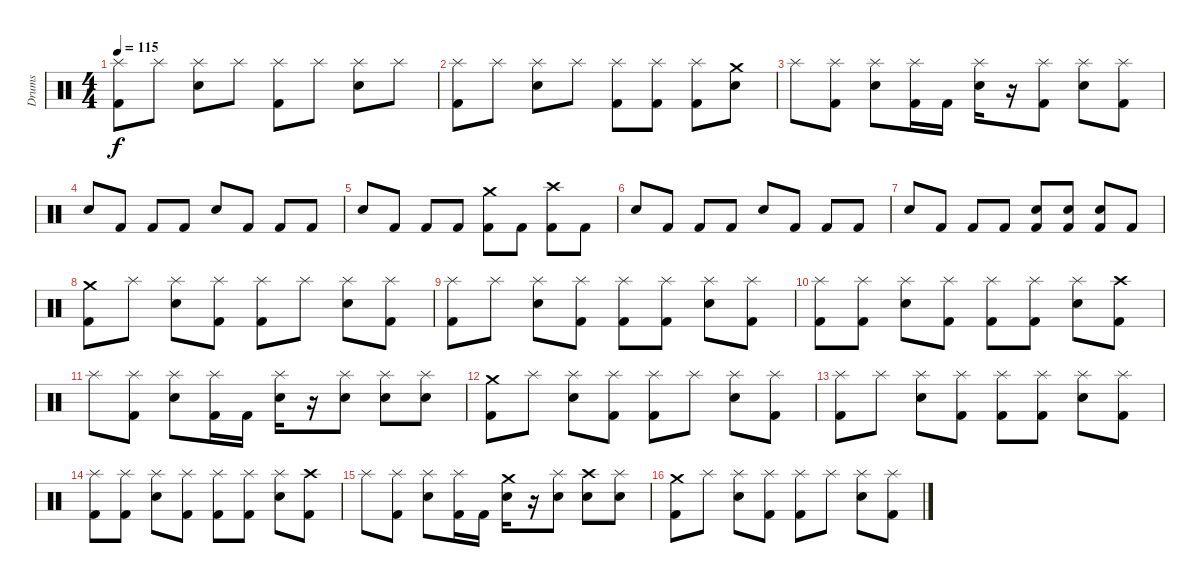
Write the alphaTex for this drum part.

\track ("Drums" "Drums") {instrument percussion}
\staff {score}
\articulation defaults
\ts (4 4)
\tempo 115
\clef neutral
\ks c
("Splash (hit)" "Kick (hit) 2").8{dy f} "Splash (hit)".8 ("Splash (hit)" "Snare (hit) 2").8 "Splash (hit)".8 ("Splash (hit)" "Kick (hit) 2").8 "Splash (hit)".8 ("Splash (hit)" "Snare (hit) 2").8 "Splash (hit)".8 |
("Splash (hit)" "Kick (hit) 2").8 "Splash (hit)".8 ("Splash (hit)" "Snare (hit) 2").8 "Splash (hit)".8 ("Splash (hit)" "Kick (hit) 2").8 ("Splash (hit)" "Kick (hit) 2").8 ("Splash (hit)" "Kick (hit) 2").8 ("Crash medium (hit)" "Snare (hit) 2").8 |
"Splash (hit)".8 ("Splash (hit)" "Kick (hit) 2").8 ("Splash (hit)" "Snare (hit) 2").8 ("Splash (hit)" "Kick (hit) 2").16 "Kick (hit) 2".16 ("Splash (hit)" "Snare (hit) 2").16 r.16 ("Splash (hit)" "Kick (hit) 2").8 ("Splash (hit)" "Snare (hit) 2").8 ("Splash (hit)" "Kick (hit) 2").8 |
"Snare (hit) 2".8 "Kick (hit) 2".8 "Kick (hit) 2".8 "Kick (hit) 2".8 "Snare (hit) 2".8 "Kick (hit) 2".8 "Kick (hit) 2".8 "Kick (hit) 2".8 |
"Snare (hit) 2".8 "Kick (hit) 2".8 "Kick (hit) 2".8 "Kick (hit) 2".8 ("Crash medium (hit)" "Kick (hit) 2").8 "Kick (hit) 2".8 ("Crash high (hit)" "Kick (hit) 2").8 "Kick (hit) 2".8 |
"Snare (hit) 2".8 "Kick (hit) 2".8 "Kick (hit) 2".8 "Kick (hit) 2".8 "Snare (hit) 2".8 "Kick (hit) 2".8 "Kick (hit) 2".8 "Kick (hit) 2".8 |
"Snare (hit) 2".8 "Kick (hit) 2".8 "Kick (hit) 2".8 "Kick (hit) 2".8 ("Snare (hit) 2" "Kick (hit) 2").8 ("Snare (hit) 2" "Kick (hit) 2").8 ("Snare (hit) 2" "Kick (hit) 2").8 "Kick (hit) 2".8 |
("Crash medium (hit)" "Kick (hit) 2").8 "Splash (hit)".8 ("Splash (hit)" "Snare (hit) 2").8 ("Splash (hit)" "Kick (hit) 2").8 ("Splash (hit)" "Kick (hit) 2").8 "Splash (hit)".8 ("Splash (hit)" "Snare (hit) 2").8 ("Splash (hit)" "Kick (hit) 2").8 |
("Splash (hit)" "Kick (hit) 2").8 "Splash (hit)".8 ("Splash (hit)" "Snare (hit) 2").8 ("Splash (hit)" "Kick (hit) 2").8 ("Splash (hit)" "Kick (hit) 2").8 ("Splash (hit)" "Kick (hit) 2").8 ("Splash (hit)" "Snare (hit) 2").8 ("Splash (hit)" "Kick (hit) 2").8 |
("Splash (hit)" "Kick (hit) 2").8 ("Splash (hit)" "Kick (hit) 2").8 ("Splash (hit)" "Snare (hit) 2").8 ("Splash (hit)" "Kick (hit) 2").8 ("Splash (hit)" "Kick (hit) 2").8 ("Splash (hit)" "Kick (hit) 2").8 ("Splash (hit)" "Snare (hit) 2").8 ("Crash high (hit)" "Kick (hit) 2").8 |
"Splash (hit)".8 ("Splash (hit)" "Kick (hit) 2").8 ("Splash (hit)" "Snare (hit) 2").8 ("Splash (hit)" "Kick (hit) 2").16 "Kick (hit) 2".16 ("Splash (hit)" "Snare (hit) 2").16 r.16 ("Splash (hit)" "Snare (hit) 2").8 ("Splash (hit)" "Snare (hit) 2").8 ("Splash (hit)" "Snare (hit) 2").8 |
("Crash medium (hit)" "Kick (hit) 2").8 "Splash (hit)".8 ("Splash (hit)" "Snare (hit) 2").8 ("Splash (hit)" "Kick (hit) 2").8 ("Splash (hit)" "Kick (hit) 2").8 "Splash (hit)".8 ("Splash (hit)" "Snare (hit) 2").8 ("Splash (hit)" "Kick (hit) 2").8 |
("Splash (hit)" "Kick (hit) 2").8 "Splash (hit)".8 ("Splash (hit)" "Snare (hit) 2").8 ("Splash (hit)" "Kick (hit) 2").8 ("Splash (hit)" "Kick (hit) 2").8 ("Splash (hit)" "Kick (hit) 2").8 ("Splash (hit)" "Snare (hit) 2").8 ("Splash (hit)" "Kick (hit) 2").8 |
("Splash (hit)" "Kick (hit) 2").8 ("Splash (hit)" "Kick (hit) 2").8 ("Splash (hit)" "Snare (hit) 2").8 ("Splash (hit)" "Kick (hit) 2").8 ("Splash (hit)" "Kick (hit) 2").8 ("Splash (hit)" "Kick (hit) 2").8 ("Splash (hit)" "Snare (hit) 2").8 ("Crash high (hit)" "Kick (hit) 2").8 |
"Splash (hit)".8 ("Splash (hit)" "Kick (hit) 2").8 ("Splash (hit)" "Snare (hit) 2").8 ("Splash (hit)" "Kick (hit) 2").16 "Kick (hit) 2".16 ("Crash medium (hit)" "Snare (hit) 2").16 r.16 ("Splash (hit)" "Snare (hit) 2").8 ("Crash high (hit)" "Snare (hit) 2").8 ("Splash (hit)" "Snare (hit) 2").8 |
("Crash medium (hit)" "Kick (hit) 2").8 "Splash (hit)".8 ("Splash (hit)" "Snare (hit) 2").8 ("Splash (hit)" "Kick (hit) 2").8 ("Splash (hit)" "Kick (hit) 2").8 "Splash (hit)".8 ("Splash (hit)" "Snare (hit) 2").8 ("Splash (hit)" "Kick (hit) 2").8
